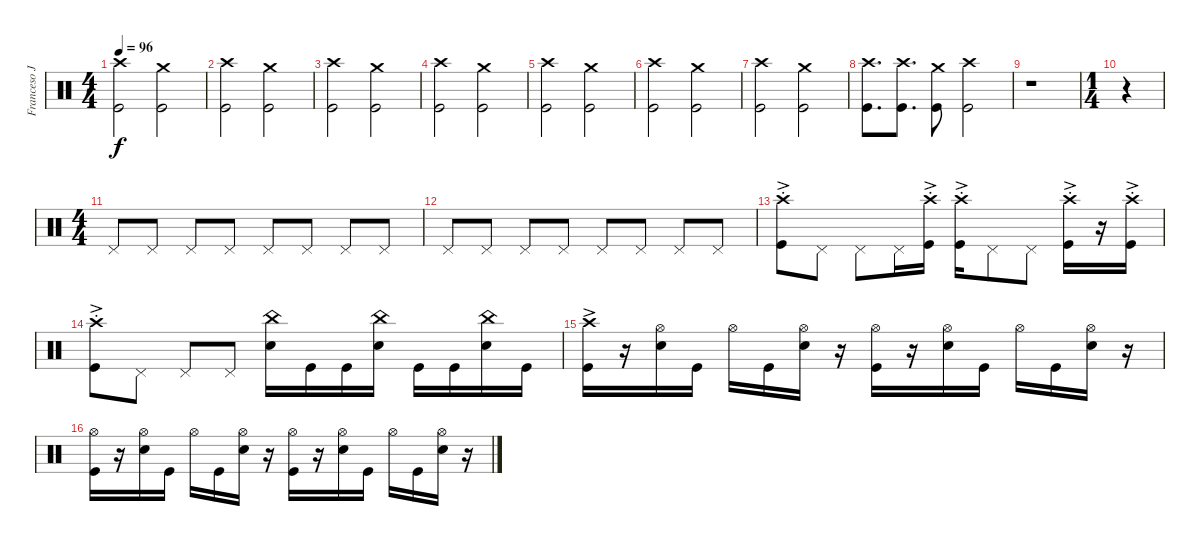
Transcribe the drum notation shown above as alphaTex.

\track ("Franceso Jovino" "Franceso J") {instrument percussion}
\staff {score}
\articulation defaults
\ts (4 4)
\tempo 96
\clef neutral
\ks c
("Kick (hit)" "Crash high (hit)").2{dy f} ("Kick (hit)" "Crash medium (hit)").2 |
("Kick (hit)" "Crash high (hit)").2 ("Kick (hit)" "Crash medium (hit)").2 |
("Kick (hit)" "Crash high (hit)").2 ("Kick (hit)" "Crash medium (hit)").2 |
("Kick (hit)" "Crash high (hit)").2 ("Kick (hit)" "Crash medium (hit)").2 |
("Kick (hit)" "Crash high (hit)").2 ("Kick (hit)" "Crash medium (hit)").2 |
("Kick (hit)" "Crash high (hit)").2 ("Kick (hit)" "Crash medium (hit)").2 |
("Kick (hit)" "Crash high (hit)").2 ("Kick (hit)" "Crash medium (hit)").2 |
("Kick (hit)" "Crash high (hit)").8{d} ("Kick (hit)" "Crash high (hit)").8{d} ("Kick (hit)" "Crash medium (hit)").8 ("Kick (hit)" "Crash high (hit)").2 |
r.1 |
\ts (1 4)
r.4 |
\ts (4 4)
"Pedal Hi-Hat (hit)".8 "Pedal Hi-Hat (hit)".8 "Pedal Hi-Hat (hit)".8 "Pedal Hi-Hat (hit)".8 "Pedal Hi-Hat (hit)".8 "Pedal Hi-Hat (hit)".8 "Pedal Hi-Hat (hit)".8 "Pedal Hi-Hat (hit)".8 |
"Pedal Hi-Hat (hit)".8 "Pedal Hi-Hat (hit)".8 "Pedal Hi-Hat (hit)".8 "Pedal Hi-Hat (hit)".8 "Pedal Hi-Hat (hit)".8 "Pedal Hi-Hat (hit)".8 "Pedal Hi-Hat (hit)".8 "Pedal Hi-Hat (hit)".8 |
("Kick (hit)" "Crash high (hit)"{ac st}).8 "Pedal Hi-Hat (hit)".8 "Pedal Hi-Hat (hit)".8 "Pedal Hi-Hat (hit)".16 ("Kick (hit)"{ac st} "Crash high (hit)"{ac st}).16 ("Kick (hit)"{ac st} "Crash high (hit)"{ac st}).16 "Pedal Hi-Hat (hit)".8 "Pedal Hi-Hat (hit)".8 ("Kick (hit)"{ac st} "Crash high (hit)"{ac st}).16 r.16 ("Kick (hit)"{ac st} "Crash high (hit)"{ac st}).16 |
("Kick (hit)" "Crash high (hit)"{ac st}).8 "Pedal Hi-Hat (hit)".8 "Pedal Hi-Hat (hit)".8 "Pedal Hi-Hat (hit)".8 ("Snare (hit) 2" "China (hit)").16 "Kick (hit)".16 "Kick (hit)".16 ("Snare (hit) 2" "China (hit)").16 "Kick (hit)".16 "Kick (hit)".16 ("Snare (hit) 2" "China (hit)").16 "Kick (hit)".16 |
("Kick (hit)"{ac} "Crash high (hit)"{ac}).16 r.16 ("Snare (hit) 2" "Hi-Hat (open)").16 "Kick (hit)".16 "Hi-Hat (open)".16 "Kick (hit)".16 ("Snare (hit) 2" "Hi-Hat (open)").16 r.16 ("Kick (hit)" "Hi-Hat (open)").16 r.16 ("Snare (hit) 2" "Hi-Hat (open)").16 "Kick (hit)".16 "Hi-Hat (open)".16 "Kick (hit)".16 ("Snare (hit) 2" "Hi-Hat (open)").16 r.16 |
("Kick (hit)" "Hi-Hat (open)").16 r.16 ("Snare (hit) 2" "Hi-Hat (open)").16 "Kick (hit)".16 "Hi-Hat (open)".16 "Kick (hit)".16 ("Snare (hit) 2" "Hi-Hat (open)").16 r.16 ("Kick (hit)" "Hi-Hat (open)").16 r.16 ("Snare (hit) 2" "Hi-Hat (open)").16 "Kick (hit)".16 "Hi-Hat (open)".16 "Kick (hit)".16 ("Snare (hit) 2" "Hi-Hat (open)").16 r.16
